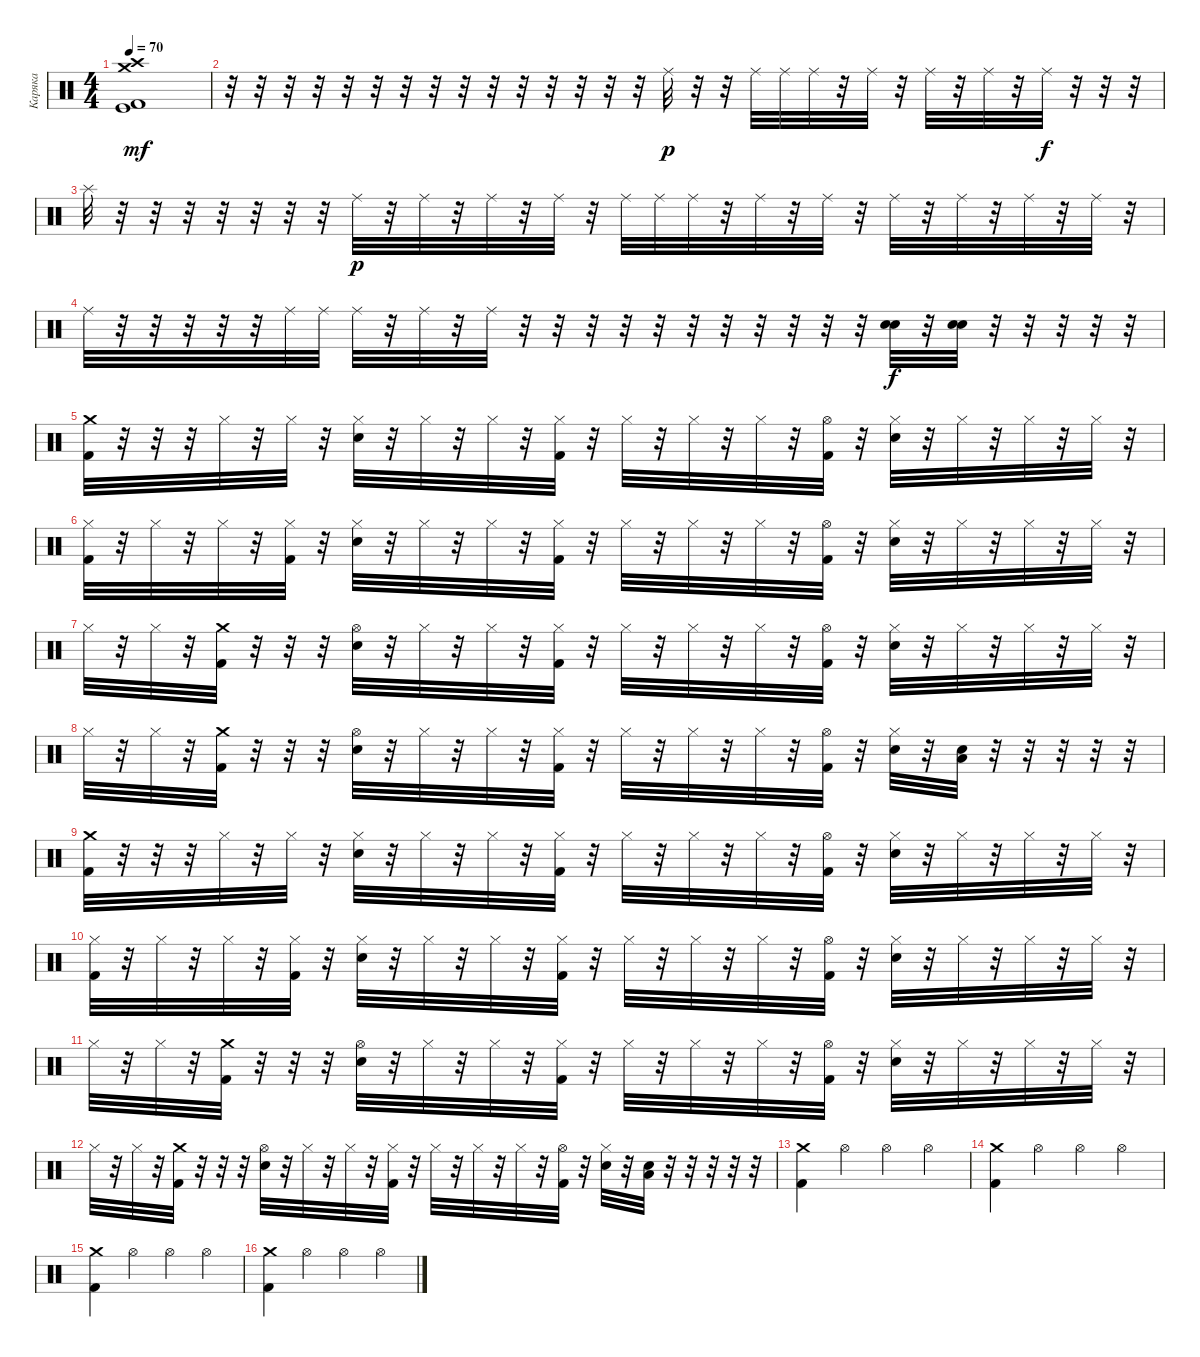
\track ("Каряка" "Каряка") {instrument percussion}
\staff {score}
\articulation defaults
\ts (4 4)
\tempo 70
\clef neutral
\ks c
("Crash medium (hit)" "Crash high (hit)" "Kick (hit)" "Kick (hit) 2").1{dy mf} |
r.32 r.32 r.32 r.32 r.32 r.32 r.32 r.32 r.32 r.32 r.32 r.32 r.32 r.32 r.32 "Ride (middle)".32{dy p} r.32 r.32 "Ride (middle)".32 "Ride (middle)".32 "Ride (middle)".32 r.32 "Ride (middle)".32 r.32 "Ride (middle)".32 r.32 "Ride (middle)".32 r.32 "Ride (middle)".32{dy f} r.32 r.32 r.32 |
"Splash (hit)".32 r.32 r.32 r.32 r.32 r.32 r.32 r.32 "Ride (middle)".32{dy p} r.32 "Ride (middle)".32 r.32 "Ride (middle)".32 r.32 "Ride (middle)".32 r.32 "Ride (middle)".32 "Ride (middle)".32 "Ride (middle)".32 r.32 "Ride (middle)".32 r.32 "Ride (middle)".32 r.32 "Ride (middle)".32 r.32 "Ride (middle)".32 r.32 "Ride (middle)".32 r.32 "Ride (middle)".32 r.32 |
"Ride (middle)".32 r.32 r.32 r.32 r.32 r.32 "Ride (middle)".32 "Ride (middle)".32 "Ride (middle)".32 r.32 "Ride (middle)".32 r.32 "Ride (middle)".32 r.32 r.32 r.32 r.32 r.32 r.32 r.32 r.32 r.32 r.32 r.32 ("Snare (hit) 2" "Snare (hit) 2").32{dy f} r.32 ("Snare (hit) 2" "Snare (hit) 2").32 r.32 r.32 r.32 r.32 r.32 |
("Crash medium (hit)" "Kick (hit) 2").32 r.32 r.32 r.32 "Hi-Hat (closed)".32 r.32 "Hi-Hat (closed)".32 r.32 ("Hi-Hat (closed)" "Snare (hit) 2").32 r.32 "Hi-Hat (closed)".32 r.32 "Hi-Hat (closed)".32 r.32 ("Hi-Hat (closed)" "Kick (hit) 2").32 r.32 "Hi-Hat (closed)".32 r.32 "Hi-Hat (closed)".32 r.32 "Hi-Hat (closed)".32 r.32 ("Hi-Hat (open)" "Kick (hit) 2").32 r.32 ("Hi-Hat (closed)" "Snare (hit) 2").32 r.32 "Hi-Hat (closed)".32 r.32 "Hi-Hat (closed)".32 r.32 "Hi-Hat (closed)".32 r.32 |
("Hi-Hat (closed)" "Kick (hit) 2").32 r.32 "Hi-Hat (closed)".32 r.32 "Hi-Hat (closed)".32 r.32 ("Hi-Hat (closed)" "Kick (hit) 2").32 r.32 ("Hi-Hat (closed)" "Snare (hit) 2").32 r.32 "Hi-Hat (closed)".32 r.32 "Hi-Hat (closed)".32 r.32 ("Hi-Hat (closed)" "Kick (hit) 2").32 r.32 "Hi-Hat (closed)".32 r.32 "Hi-Hat (closed)".32 r.32 "Hi-Hat (closed)".32 r.32 ("Hi-Hat (open)" "Kick (hit) 2").32 r.32 ("Hi-Hat (closed)" "Snare (hit) 2").32 r.32 "Hi-Hat (closed)".32 r.32 "Hi-Hat (closed)".32 r.32 "Hi-Hat (closed)".32 r.32 |
"Hi-Hat (closed)".32 r.32 "Hi-Hat (closed)".32 r.32 ("Crash medium (hit)" "Kick (hit) 2").32 r.32 r.32 r.32 ("Hi-Hat (open)" "Snare (hit) 2").32 r.32 "Hi-Hat (closed)".32 r.32 "Hi-Hat (closed)".32 r.32 ("Hi-Hat (closed)" "Kick (hit) 2").32 r.32 "Hi-Hat (closed)".32 r.32 "Hi-Hat (closed)".32 r.32 "Hi-Hat (closed)".32 r.32 ("Hi-Hat (open)" "Kick (hit) 2").32 r.32 ("Hi-Hat (closed)" "Snare (hit) 2").32 r.32 "Hi-Hat (closed)".32 r.32 "Hi-Hat (closed)".32 r.32 "Hi-Hat (closed)".32 r.32 |
"Hi-Hat (closed)".32 r.32 "Hi-Hat (closed)".32 r.32 ("Crash medium (hit)" "Kick (hit) 2").32 r.32 r.32 r.32 ("Hi-Hat (open)" "Snare (hit) 2").32 r.32 "Hi-Hat (closed)".32 r.32 "Hi-Hat (closed)".32 r.32 ("Hi-Hat (closed)" "Kick (hit) 2").32 r.32 "Hi-Hat (closed)".32 r.32 "Hi-Hat (closed)".32 r.32 "Hi-Hat (closed)".32 r.32 ("Hi-Hat (open)" "Kick (hit) 2").32 r.32 ("Hi-Hat (closed)" "Snare (hit) 2").32 r.32 ("Low Tom (hit)" "Snare (hit) 2").32 r.32 r.32 r.32 r.32 r.32 |
("Crash medium (hit)" "Kick (hit) 2").32 r.32 r.32 r.32 "Hi-Hat (closed)".32 r.32 "Hi-Hat (closed)".32 r.32 ("Hi-Hat (closed)" "Snare (hit) 2").32 r.32 "Hi-Hat (closed)".32 r.32 "Hi-Hat (closed)".32 r.32 ("Hi-Hat (closed)" "Kick (hit) 2").32 r.32 "Hi-Hat (closed)".32 r.32 "Hi-Hat (closed)".32 r.32 "Hi-Hat (closed)".32 r.32 ("Hi-Hat (open)" "Kick (hit) 2").32 r.32 ("Hi-Hat (closed)" "Snare (hit) 2").32 r.32 "Hi-Hat (closed)".32 r.32 "Hi-Hat (closed)".32 r.32 "Hi-Hat (closed)".32 r.32 |
("Hi-Hat (closed)" "Kick (hit) 2").32 r.32 "Hi-Hat (closed)".32 r.32 "Hi-Hat (closed)".32 r.32 ("Hi-Hat (closed)" "Kick (hit) 2").32 r.32 ("Hi-Hat (closed)" "Snare (hit) 2").32 r.32 "Hi-Hat (closed)".32 r.32 "Hi-Hat (closed)".32 r.32 ("Hi-Hat (closed)" "Kick (hit) 2").32 r.32 "Hi-Hat (closed)".32 r.32 "Hi-Hat (closed)".32 r.32 "Hi-Hat (closed)".32 r.32 ("Hi-Hat (open)" "Kick (hit) 2").32 r.32 ("Hi-Hat (closed)" "Snare (hit) 2").32 r.32 "Hi-Hat (closed)".32 r.32 "Hi-Hat (closed)".32 r.32 "Hi-Hat (closed)".32 r.32 |
"Hi-Hat (closed)".32 r.32 "Hi-Hat (closed)".32 r.32 ("Crash medium (hit)" "Kick (hit) 2").32 r.32 r.32 r.32 ("Hi-Hat (open)" "Snare (hit) 2").32 r.32 "Hi-Hat (closed)".32 r.32 "Hi-Hat (closed)".32 r.32 ("Hi-Hat (closed)" "Kick (hit) 2").32 r.32 "Hi-Hat (closed)".32 r.32 "Hi-Hat (closed)".32 r.32 "Hi-Hat (closed)".32 r.32 ("Hi-Hat (open)" "Kick (hit) 2").32 r.32 ("Hi-Hat (closed)" "Snare (hit) 2").32 r.32 "Hi-Hat (closed)".32 r.32 "Hi-Hat (closed)".32 r.32 "Hi-Hat (closed)".32 r.32 |
"Hi-Hat (closed)".32 r.32 "Hi-Hat (closed)".32 r.32 ("Crash medium (hit)" "Kick (hit) 2").32 r.32 r.32 r.32 ("Hi-Hat (open)" "Snare (hit) 2").32 r.32 "Hi-Hat (closed)".32 r.32 "Hi-Hat (closed)".32 r.32 ("Hi-Hat (closed)" "Kick (hit) 2").32 r.32 "Hi-Hat (closed)".32 r.32 "Hi-Hat (closed)".32 r.32 "Hi-Hat (closed)".32 r.32 ("Hi-Hat (open)" "Kick (hit) 2").32 r.32 ("Hi-Hat (closed)" "Snare (hit) 2").32 r.32 ("Low Tom (hit)" "Snare (hit) 2").32 r.32 r.32 r.32 r.32 r.32 |
("Crash medium (hit)" "Kick (hit) 2").4 "Hi-Hat (open)".4 "Hi-Hat (open)".4 "Hi-Hat (open)".4 |
("Crash medium (hit)" "Kick (hit) 2").4 "Hi-Hat (open)".4 "Hi-Hat (open)".4 "Hi-Hat (open)".4 |
("Crash medium (hit)" "Kick (hit) 2").4 "Hi-Hat (open)".4 "Hi-Hat (open)".4 "Hi-Hat (open)".4 |
("Crash medium (hit)" "Kick (hit) 2").4 "Hi-Hat (open)".4 "Hi-Hat (open)".4 "Hi-Hat (open)".4
